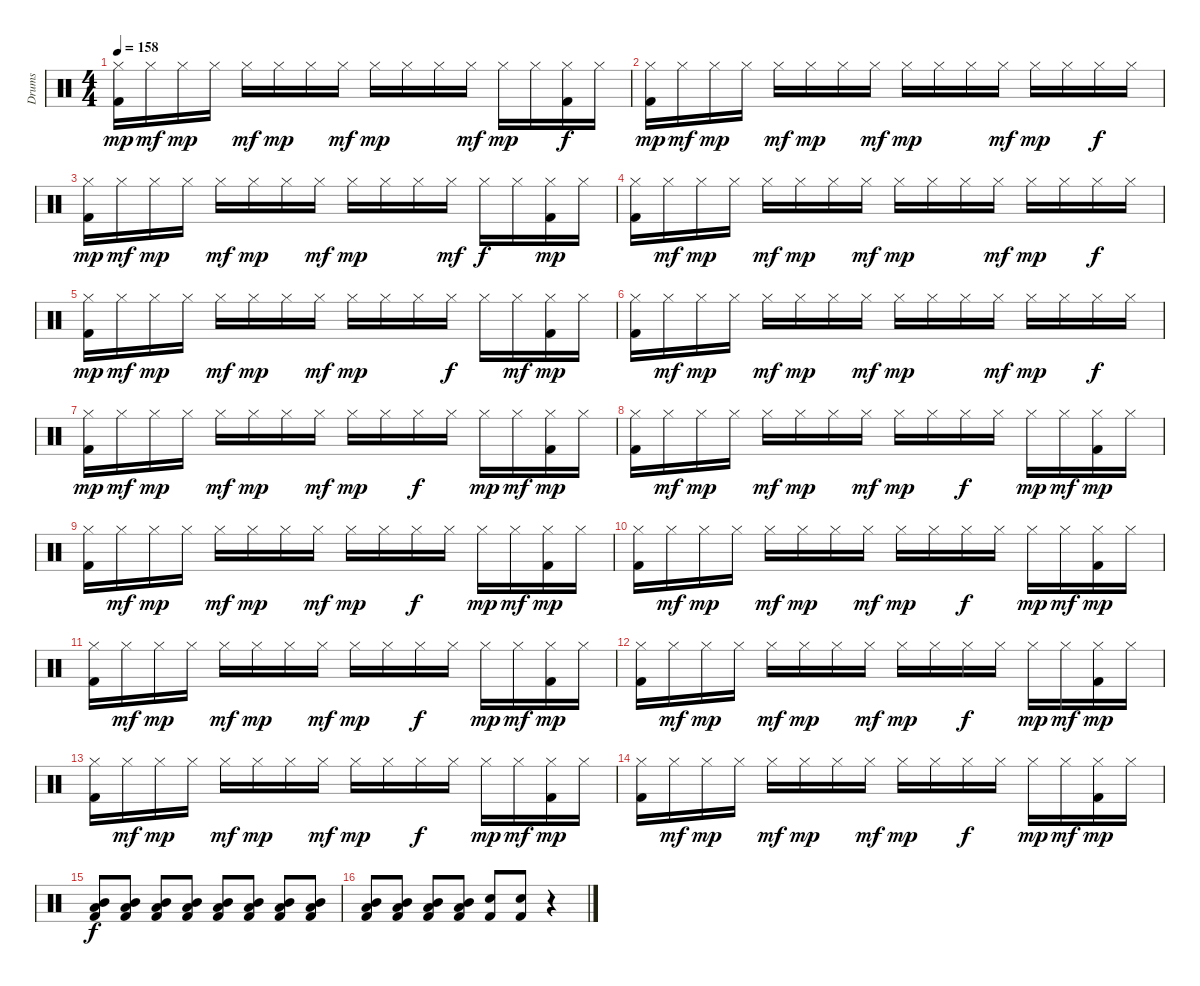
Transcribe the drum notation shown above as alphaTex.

\track ("Drums" "Drums") {instrument percussion}
\staff {score}
\articulation defaults
\ts (4 4)
\tempo 158
\clef neutral
\ks c
("Hi-Hat (closed)" "Kick (hit) 2").16{dy mp} "Hi-Hat (closed)".16{dy mf} "Hi-Hat (closed)".16{dy mp} "Hi-Hat (closed)".16 "Hi-Hat (closed)".16{dy mf} "Hi-Hat (closed)".16{dy mp} "Hi-Hat (closed)".16 "Hi-Hat (closed)".16{dy mf} "Hi-Hat (closed)".16{dy mp} "Hi-Hat (closed)".16 "Hi-Hat (closed)".16 "Hi-Hat (closed)".16{dy mf} "Hi-Hat (closed)".16{dy mp} "Hi-Hat (closed)".16 ("Hi-Hat (closed)" "Kick (hit) 2").16{dy f} "Hi-Hat (closed)".16 |
("Hi-Hat (closed)" "Kick (hit) 2").16{dy mp} "Hi-Hat (closed)".16{dy mf} "Hi-Hat (closed)".16{dy mp} "Hi-Hat (closed)".16 "Hi-Hat (closed)".16{dy mf} "Hi-Hat (closed)".16{dy mp} "Hi-Hat (closed)".16 "Hi-Hat (closed)".16{dy mf} "Hi-Hat (closed)".16{dy mp} "Hi-Hat (closed)".16 "Hi-Hat (closed)".16 "Hi-Hat (closed)".16{dy mf} "Hi-Hat (closed)".16{dy mp} "Hi-Hat (closed)".16 "Hi-Hat (closed)".16{dy f} "Hi-Hat (closed)".16 |
("Hi-Hat (closed)" "Kick (hit) 2").16{dy mp} "Hi-Hat (closed)".16{dy mf} "Hi-Hat (closed)".16{dy mp} "Hi-Hat (closed)".16 "Hi-Hat (closed)".16{dy mf} "Hi-Hat (closed)".16{dy mp} "Hi-Hat (closed)".16 "Hi-Hat (closed)".16{dy mf} "Hi-Hat (closed)".16{dy mp} "Hi-Hat (closed)".16 "Hi-Hat (closed)".16 "Hi-Hat (closed)".16{dy mf} "Hi-Hat (closed)".16{dy f} "Hi-Hat (closed)".16 ("Hi-Hat (closed)" "Kick (hit) 2").16{dy mp} "Hi-Hat (closed)".16 |
("Hi-Hat (closed)" "Kick (hit) 2").16 "Hi-Hat (closed)".16{dy mf} "Hi-Hat (closed)".16{dy mp} "Hi-Hat (closed)".16 "Hi-Hat (closed)".16{dy mf} "Hi-Hat (closed)".16{dy mp} "Hi-Hat (closed)".16 "Hi-Hat (closed)".16{dy mf} "Hi-Hat (closed)".16{dy mp} "Hi-Hat (closed)".16 "Hi-Hat (closed)".16 "Hi-Hat (closed)".16{dy mf} "Hi-Hat (closed)".16{dy mp} "Hi-Hat (closed)".16 "Hi-Hat (closed)".16{dy f} "Hi-Hat (closed)".16 |
("Hi-Hat (closed)" "Kick (hit) 2").16{dy mp} "Hi-Hat (closed)".16{dy mf} "Hi-Hat (closed)".16{dy mp} "Hi-Hat (closed)".16 "Hi-Hat (closed)".16{dy mf} "Hi-Hat (closed)".16{dy mp} "Hi-Hat (closed)".16 "Hi-Hat (closed)".16{dy mf} "Hi-Hat (closed)".16{dy mp} "Hi-Hat (closed)".16 "Hi-Hat (closed)".16 "Hi-Hat (closed)".16{dy f} "Hi-Hat (closed)".16 "Hi-Hat (closed)".16{dy mf} ("Hi-Hat (closed)" "Kick (hit) 2").16{dy mp} "Hi-Hat (closed)".16 |
("Hi-Hat (closed)" "Kick (hit) 2").16 "Hi-Hat (closed)".16{dy mf} "Hi-Hat (closed)".16{dy mp} "Hi-Hat (closed)".16 "Hi-Hat (closed)".16{dy mf} "Hi-Hat (closed)".16{dy mp} "Hi-Hat (closed)".16 "Hi-Hat (closed)".16{dy mf} "Hi-Hat (closed)".16{dy mp} "Hi-Hat (closed)".16 "Hi-Hat (closed)".16 "Hi-Hat (closed)".16{dy mf} "Hi-Hat (closed)".16{dy mp} "Hi-Hat (closed)".16 "Hi-Hat (closed)".16{dy f} "Hi-Hat (closed)".16 |
("Hi-Hat (closed)" "Kick (hit) 2").16{dy mp} "Hi-Hat (closed)".16{dy mf} "Hi-Hat (closed)".16{dy mp} "Hi-Hat (closed)".16 "Hi-Hat (closed)".16{dy mf} "Hi-Hat (closed)".16{dy mp} "Hi-Hat (closed)".16 "Hi-Hat (closed)".16{dy mf} "Hi-Hat (closed)".16{dy mp} "Hi-Hat (closed)".16 "Hi-Hat (closed)".16{dy f} "Hi-Hat (closed)".16 "Hi-Hat (closed)".16{dy mp} "Hi-Hat (closed)".16{dy mf} ("Hi-Hat (closed)" "Kick (hit) 2").16{dy mp} "Hi-Hat (closed)".16 |
("Hi-Hat (closed)" "Kick (hit) 2").16 "Hi-Hat (closed)".16{dy mf} "Hi-Hat (closed)".16{dy mp} "Hi-Hat (closed)".16 "Hi-Hat (closed)".16{dy mf} "Hi-Hat (closed)".16{dy mp} "Hi-Hat (closed)".16 "Hi-Hat (closed)".16{dy mf} "Hi-Hat (closed)".16{dy mp} "Hi-Hat (closed)".16 "Hi-Hat (closed)".16{dy f} "Hi-Hat (closed)".16 "Hi-Hat (closed)".16{dy mp} "Hi-Hat (closed)".16{dy mf} ("Hi-Hat (closed)" "Kick (hit) 2").16{dy mp} "Hi-Hat (closed)".16 |
("Hi-Hat (closed)" "Kick (hit) 2").16 "Hi-Hat (closed)".16{dy mf} "Hi-Hat (closed)".16{dy mp} "Hi-Hat (closed)".16 "Hi-Hat (closed)".16{dy mf} "Hi-Hat (closed)".16{dy mp} "Hi-Hat (closed)".16 "Hi-Hat (closed)".16{dy mf} "Hi-Hat (closed)".16{dy mp} "Hi-Hat (closed)".16 "Hi-Hat (closed)".16{dy f} "Hi-Hat (closed)".16 "Hi-Hat (closed)".16{dy mp} "Hi-Hat (closed)".16{dy mf} ("Hi-Hat (closed)" "Kick (hit) 2").16{dy mp} "Hi-Hat (closed)".16 |
("Hi-Hat (closed)" "Kick (hit) 2").16 "Hi-Hat (closed)".16{dy mf} "Hi-Hat (closed)".16{dy mp} "Hi-Hat (closed)".16 "Hi-Hat (closed)".16{dy mf} "Hi-Hat (closed)".16{dy mp} "Hi-Hat (closed)".16 "Hi-Hat (closed)".16{dy mf} "Hi-Hat (closed)".16{dy mp} "Hi-Hat (closed)".16 "Hi-Hat (closed)".16{dy f} "Hi-Hat (closed)".16 "Hi-Hat (closed)".16{dy mp} "Hi-Hat (closed)".16{dy mf} ("Hi-Hat (closed)" "Kick (hit) 2").16{dy mp} "Hi-Hat (closed)".16 |
("Hi-Hat (closed)" "Kick (hit) 2").16 "Hi-Hat (closed)".16{dy mf} "Hi-Hat (closed)".16{dy mp} "Hi-Hat (closed)".16 "Hi-Hat (closed)".16{dy mf} "Hi-Hat (closed)".16{dy mp} "Hi-Hat (closed)".16 "Hi-Hat (closed)".16{dy mf} "Hi-Hat (closed)".16{dy mp} "Hi-Hat (closed)".16 "Hi-Hat (closed)".16{dy f} "Hi-Hat (closed)".16 "Hi-Hat (closed)".16{dy mp} "Hi-Hat (closed)".16{dy mf} ("Hi-Hat (closed)" "Kick (hit) 2").16{dy mp} "Hi-Hat (closed)".16 |
("Hi-Hat (closed)" "Kick (hit) 2").16 "Hi-Hat (closed)".16{dy mf} "Hi-Hat (closed)".16{dy mp} "Hi-Hat (closed)".16 "Hi-Hat (closed)".16{dy mf} "Hi-Hat (closed)".16{dy mp} "Hi-Hat (closed)".16 "Hi-Hat (closed)".16{dy mf} "Hi-Hat (closed)".16{dy mp} "Hi-Hat (closed)".16 "Hi-Hat (closed)".16{dy f} "Hi-Hat (closed)".16 "Hi-Hat (closed)".16{dy mp} "Hi-Hat (closed)".16{dy mf} ("Hi-Hat (closed)" "Kick (hit) 2").16{dy mp} "Hi-Hat (closed)".16 |
("Hi-Hat (closed)" "Kick (hit) 2").16 "Hi-Hat (closed)".16{dy mf} "Hi-Hat (closed)".16{dy mp} "Hi-Hat (closed)".16 "Hi-Hat (closed)".16{dy mf} "Hi-Hat (closed)".16{dy mp} "Hi-Hat (closed)".16 "Hi-Hat (closed)".16{dy mf} "Hi-Hat (closed)".16{dy mp} "Hi-Hat (closed)".16 "Hi-Hat (closed)".16{dy f} "Hi-Hat (closed)".16 "Hi-Hat (closed)".16{dy mp} "Hi-Hat (closed)".16{dy mf} ("Hi-Hat (closed)" "Kick (hit) 2").16{dy mp} "Hi-Hat (closed)".16 |
("Hi-Hat (closed)" "Kick (hit) 2").16 "Hi-Hat (closed)".16{dy mf} "Hi-Hat (closed)".16{dy mp} "Hi-Hat (closed)".16 "Hi-Hat (closed)".16{dy mf} "Hi-Hat (closed)".16{dy mp} "Hi-Hat (closed)".16 "Hi-Hat (closed)".16{dy mf} "Hi-Hat (closed)".16{dy mp} "Hi-Hat (closed)".16 "Hi-Hat (closed)".16{dy f} "Hi-Hat (closed)".16 "Hi-Hat (closed)".16{dy mp} "Hi-Hat (closed)".16{dy mf} ("Hi-Hat (closed)" "Kick (hit) 2").16{dy mp} "Hi-Hat (closed)".16 |
("Low Floor Tom (hit)" "Mid Tom (hit)" "Kick (hit) 2").8{dy f volume 8} ("Low Floor Tom (hit)" "Mid Tom (hit)" "Kick (hit) 2").8{volume 16} ("Low Floor Tom (hit)" "Mid Tom (hit)" "Kick (hit) 2").8 ("Low Floor Tom (hit)" "Mid Tom (hit)" "Kick (hit) 2").8 ("Low Floor Tom (hit)" "Mid Tom (hit)" "Kick (hit) 2").8 ("Low Floor Tom (hit)" "Mid Tom (hit)" "Kick (hit) 2").8 ("Low Floor Tom (hit)" "Mid Tom (hit)" "Kick (hit) 2").8 ("Low Floor Tom (hit)" "Mid Tom (hit)" "Kick (hit) 2").8 |
("Low Floor Tom (hit)" "Mid Tom (hit)" "Kick (hit) 2").8 ("Low Floor Tom (hit)" "Mid Tom (hit)" "Kick (hit) 2").8 ("Low Floor Tom (hit)" "Mid Tom (hit)" "Kick (hit) 2").8 ("Low Floor Tom (hit)" "Mid Tom (hit)" "Kick (hit) 2").8 ("Kick (hit) 2" "Electric Snare (hit)").8 ("Kick (hit) 2" "Electric Snare (hit)").8 r.4
